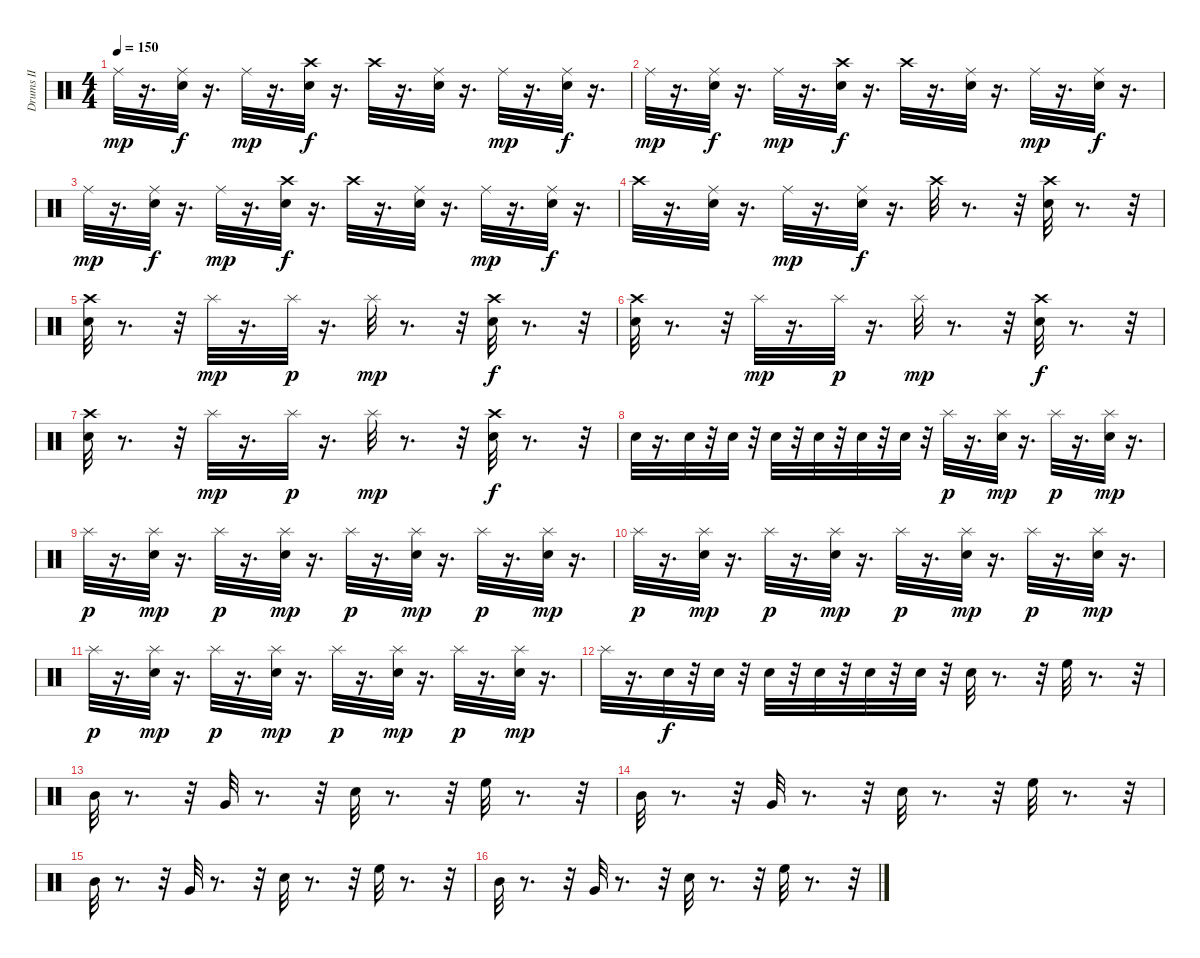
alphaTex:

\track ("Drums II" "Drums II") {instrument percussion}
\staff {score}
\articulation defaults
\ts (4 4)
\tempo 150
\clef neutral
\ks c "Ride (middle)".32{dy mp}
r.16{d} ("Snare (hit) 2" "Ride (middle)").32{dy f} r.16{d} "Ride (middle)".32{dy mp} r.16{d} ("Snare (hit) 2" "Crash high (hit)").32{dy f} r.16{d} "Crash high (hit)".32 r.16{d} ("Snare (hit) 2" "Ride (middle)").32 r.16{d} "Ride (middle)".32{dy mp} r.16{d} ("Snare (hit) 2" "Ride (middle)").32{dy f} r.16{d} |
"Ride (middle)".32{dy mp} r.16{d} ("Snare (hit) 2" "Ride (middle)").32{dy f} r.16{d} "Ride (middle)".32{dy mp} r.16{d} ("Snare (hit) 2" "Crash high (hit)").32{dy f} r.16{d} "Crash high (hit)".32 r.16{d} ("Snare (hit) 2" "Ride (middle)").32 r.16{d} "Ride (middle)".32{dy mp} r.16{d} ("Snare (hit) 2" "Ride (middle)").32{dy f} r.16{d} |
"Ride (middle)".32{dy mp} r.16{d} ("Snare (hit) 2" "Ride (middle)").32{dy f} r.16{d} "Ride (middle)".32{dy mp} r.16{d} ("Snare (hit) 2" "Crash high (hit)").32{dy f} r.16{d} "Crash high (hit)".32 r.16{d} ("Snare (hit) 2" "Ride (middle)").32 r.16{d} "Ride (middle)".32{dy mp} r.16{d} ("Snare (hit) 2" "Ride (middle)").32{dy f} r.16{d} |
"Crash high (hit)".32 r.16{d} ("Snare (hit) 2" "Ride (middle)").32 r.16{d} "Ride (middle)".32{dy mp} r.16{d} ("Snare (hit) 2" "Ride (middle)").32{dy f} r.16{d} "Crash high (hit)".32 r.8{d} r.32 ("Snare (hit) 2" "Crash high (hit)").32 r.8{d} r.32 |
("Snare (hit) 2" "Crash high (hit)").32 r.8{d} r.32 "Splash (hit)".32{dy mp} r.16{d} "Splash (hit)".32{dy p} r.16{d} "Splash (hit)".32{dy mp} r.8{d} r.32 ("Crash high (hit)" "Snare (hit) 2").32{dy f} r.8{d} r.32 |
("Crash high (hit)" "Snare (hit) 2").32 r.8{d} r.32 "Splash (hit)".32{dy mp} r.16{d} "Splash (hit)".32{dy p} r.16{d} "Splash (hit)".32{dy mp} r.8{d} r.32 ("Crash high (hit)" "Snare (hit) 2").32{dy f} r.8{d} r.32 |
("Crash high (hit)" "Snare (hit) 2").32 r.8{d} r.32 "Splash (hit)".32{dy mp} r.16{d} "Splash (hit)".32{dy p} r.16{d} "Splash (hit)".32{dy mp} r.8{d} r.32 ("Crash high (hit)" "Snare (hit) 2").32{dy f} r.8{d} r.32 |
"Snare (hit) 2".32 r.16{d} "Snare (hit) 2".32 r.32 "Snare (hit) 2".32 r.32 "Snare (hit) 2".32 r.32 "Snare (hit) 2".32 r.32 "Snare (hit) 2".32 r.32 "Snare (hit) 2".32 r.32 "Splash (hit)".32{dy p} r.16{d} ("Snare (hit) 2" "Splash (hit)").32{dy mp} r.16{d} "Splash (hit)".32{dy p} r.16{d} ("Snare (hit) 2" "Splash (hit)").32{dy mp} r.16{d} |
"Splash (hit)".32{dy p} r.16{d} ("Snare (hit) 2" "Splash (hit)").32{dy mp} r.16{d} "Splash (hit)".32{dy p} r.16{d} ("Snare (hit) 2" "Splash (hit)").32{dy mp} r.16{d} "Splash (hit)".32{dy p} r.16{d} ("Snare (hit) 2" "Splash (hit)").32{dy mp} r.16{d} "Splash (hit)".32{dy p} r.16{d} ("Snare (hit) 2" "Splash (hit)").32{dy mp} r.16{d} |
"Splash (hit)".32{dy p} r.16{d} ("Snare (hit) 2" "Splash (hit)").32{dy mp} r.16{d} "Splash (hit)".32{dy p} r.16{d} ("Snare (hit) 2" "Splash (hit)").32{dy mp} r.16{d} "Splash (hit)".32{dy p} r.16{d} ("Snare (hit) 2" "Splash (hit)").32{dy mp} r.16{d} "Splash (hit)".32{dy p} r.16{d} ("Snare (hit) 2" "Splash (hit)").32{dy mp} r.16{d} |
"Splash (hit)".32{dy p} r.16{d} ("Snare (hit) 2" "Splash (hit)").32{dy mp} r.16{d} "Splash (hit)".32{dy p} r.16{d} ("Snare (hit) 2" "Splash (hit)").32{dy mp} r.16{d} "Splash (hit)".32{dy p} r.16{d} ("Snare (hit) 2" "Splash (hit)").32{dy mp} r.16{d} "Splash (hit)".32{dy p} r.16{d} ("Snare (hit) 2" "Splash (hit)").32{dy mp} r.16{d} |
"Splash (hit)".32 r.16{d} "Snare (hit) 2".32{dy f} r.32 "Snare (hit) 2".32 r.32 "Snare (hit) 2".32 r.32 "Snare (hit) 2".32 r.32 "Snare (hit) 2".32 r.32 "Snare (hit) 2".32 r.32 "Snare (hit) 2".32 r.8{d} r.32 "High Floor Tom (hit)".32 r.8{d} r.32 |
"Mid Tom (hit)".32 r.8{d} r.32 "Very Low Tom (hit)".32 r.8{d} r.32 "Snare (hit) 2".32 r.8{d} r.32 "High Floor Tom (hit)".32{volume 15} r.8{d} r.32 |
"Mid Tom (hit)".32{volume 14} r.8{d} r.32 "Very Low Tom (hit)".32{volume 14} r.8{d} r.32 "Snare (hit) 2".32{volume 13} r.8{d} r.32 "High Floor Tom (hit)".32{volume 12} r.8{d} r.32 |
"Mid Tom (hit)".32{volume 11} r.8{d} r.32 "Very Low Tom (hit)".32{volume 10} r.8{d} r.32 "Snare (hit) 2".32{volume 10} r.8{d} r.32 "High Floor Tom (hit)".32{volume 9} r.8{d} r.32 |
"Mid Tom (hit)".32{volume 8} r.8{d} r.32 "Very Low Tom (hit)".32{volume 7} r.8{d} r.32 "Snare (hit) 2".32{volume 6} r.8{d} r.32 "High Floor Tom (hit)".32{volume 6} r.8{d} r.32
